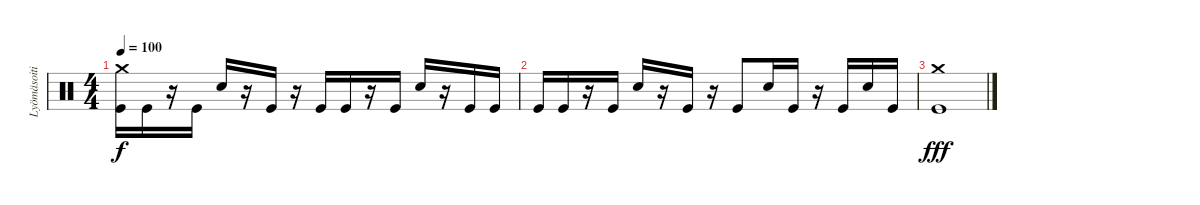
\track ("Lyömäsoitin" "Lyömäsoiti") {instrument percussion}
\staff {score}
\articulation defaults
\ts (4 4)
\tempo 100
\clef neutral
\ks c
("Crash medium (hit)" "Kick (hit)").16{dy f} "Kick (hit)".16 r.16 "Kick (hit)".16 "Electric Snare (hit)".16 r.16 "Kick (hit)".16 r.16 "Kick (hit)".16 "Kick (hit)".16 r.16 "Kick (hit)".16 "Electric Snare (hit)".16 r.16 "Kick (hit)".16 "Kick (hit)".16 |
"Kick (hit)".16 "Kick (hit)".16 r.16 "Kick (hit)".16 "Electric Snare (hit)".16 r.16 "Kick (hit)".16 r.16 "Kick (hit)".8 "Electric Snare (hit)".16 "Kick (hit)".16 r.16 "Kick (hit)".16 "Electric Snare (hit)".16 "Kick (hit)".16 |
("Crash medium (hit)" "Kick (hit)").1{dy fff}
